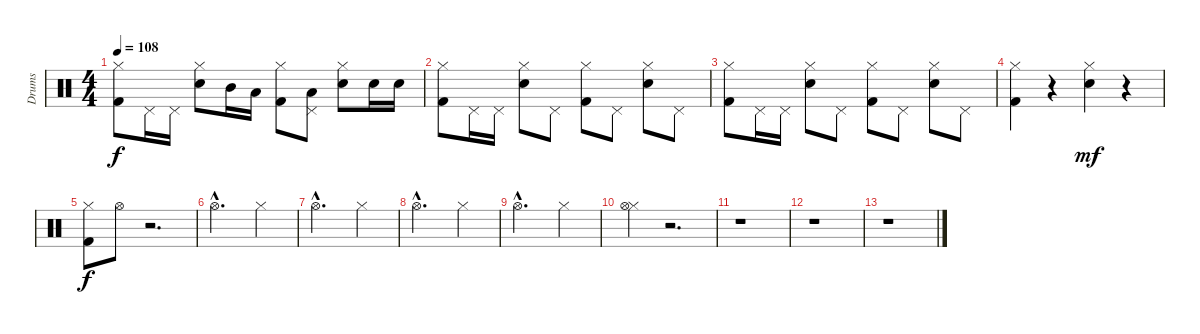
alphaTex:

\track ("Drums" "Drums") {instrument percussion}
\staff {score}
\articulation defaults
\ts (4 4)
\tempo 108
\clef neutral
\ks c
("Hi-Hat (closed)" "Kick (hit) 2").8{dy f} "Pedal Hi-Hat (hit)".16 "Pedal Hi-Hat (hit)".16 ("Hi-Hat (closed)" "Electric Snare (hit)").8 "Mid Tom (hit)".16 "Low Tom (hit)".16 ("Hi-Hat (closed)" "Kick (hit) 2").8 ("Pedal Hi-Hat (hit)" "Low Tom (hit)").8 ("Hi-Hat (closed)" "Electric Snare (hit)").8 "Electric Snare (hit)".16 "Electric Snare (hit)".16 |
("Hi-Hat (closed)" "Kick (hit) 2").8 "Pedal Hi-Hat (hit)".16 "Pedal Hi-Hat (hit)".16 ("Hi-Hat (closed)" "Electric Snare (hit)").8 "Pedal Hi-Hat (hit)".8 ("Hi-Hat (closed)" "Kick (hit) 2").8 "Pedal Hi-Hat (hit)".8 ("Hi-Hat (closed)" "Electric Snare (hit)").8 "Pedal Hi-Hat (hit)".8 |
("Hi-Hat (closed)" "Kick (hit) 2").8 "Pedal Hi-Hat (hit)".16 "Pedal Hi-Hat (hit)".16 ("Hi-Hat (closed)" "Electric Snare (hit)").8 "Pedal Hi-Hat (hit)".8 ("Hi-Hat (closed)" "Kick (hit) 2").8 "Pedal Hi-Hat (hit)".8 ("Hi-Hat (closed)" "Electric Snare (hit)").8 "Pedal Hi-Hat (hit)".8 |
("Hi-Hat (closed)" "Kick (hit) 2").4 r.4 ("Hi-Hat (closed)" "Electric Snare (hit)").4{dy mf} r.4 |
("Hi-Hat (closed)" "Kick (hit) 2").8{dy f} "Hi-Hat (open)".8 r.2{d} |
"Hi-Hat (open)"{hac}.2{d} "Hi-Hat (closed)".4 |
"Hi-Hat (open)"{hac}.2{d} "Hi-Hat (closed)".4 |
"Hi-Hat (open)"{hac}.2{d} "Hi-Hat (closed)".4 |
"Hi-Hat (open)"{hac}.2{d} "Hi-Hat (closed)".4 |
("Hi-Hat (closed)" "Hi-Hat (open)").4 r.2{d} |
r.1 |
r.1 |
r.1
